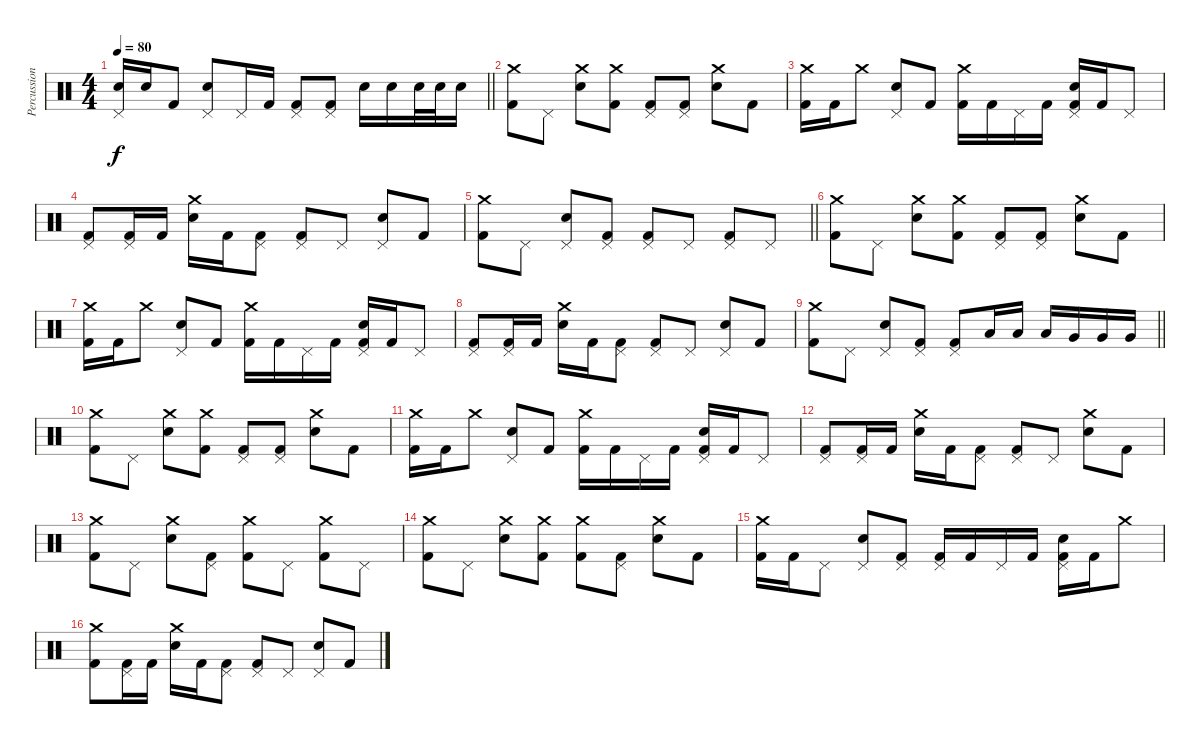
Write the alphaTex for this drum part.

\track ("Percussion" "Percussion") {instrument percussion}
\staff {score}
\articulation defaults
\ts (4 4)
\tempo 80
\clef neutral
\barLineRight lightlight
\ks c
("Pedal Hi-Hat (hit)" "Electric Snare (hit)").16{dy f} "Electric Snare (hit)".16 "Kick (hit) 2".8 ("Pedal Hi-Hat (hit)" "Electric Snare (hit)").8 "Pedal Hi-Hat (hit)".16 "Kick (hit) 2".16 ("Pedal Hi-Hat (hit)" "Kick (hit) 2").8 ("Pedal Hi-Hat (hit)" "Kick (hit) 2").8 "Electric Snare (hit)".16 "Electric Snare (hit)".16 "Electric Snare (hit)".32 "Electric Snare (hit)".32 "Electric Snare (hit)".16 |
("Crash medium (hit)" "Kick (hit) 2").8 "Pedal Hi-Hat (hit)".8 ("Crash medium (hit)" "Electric Snare (hit)").8 ("Crash medium (hit)" "Kick (hit) 2").8 ("Pedal Hi-Hat (hit)" "Kick (hit) 2").8 ("Pedal Hi-Hat (hit)" "Kick (hit) 2").8 ("Crash medium (hit)" "Electric Snare (hit)").8 "Kick (hit) 2".8 |
("Crash medium (hit)" "Kick (hit) 2").16 "Kick (hit) 2".16 "Crash medium (hit)".8 ("Pedal Hi-Hat (hit)" "Electric Snare (hit)").8 "Kick (hit) 2".8 ("Crash medium (hit)" "Kick (hit) 2").16 "Kick (hit) 2".16 "Pedal Hi-Hat (hit)".16 "Kick (hit) 2".16 ("Pedal Hi-Hat (hit)" "Electric Snare (hit)" "Kick (hit) 2").16 "Kick (hit) 2".16 "Pedal Hi-Hat (hit)".8 |
("Pedal Hi-Hat (hit)" "Kick (hit) 2").8 ("Pedal Hi-Hat (hit)" "Kick (hit) 2").16 "Kick (hit) 2".16 ("Crash medium (hit)" "Electric Snare (hit)").16 "Kick (hit) 2".16 ("Pedal Hi-Hat (hit)" "Kick (hit) 2").8 ("Pedal Hi-Hat (hit)" "Kick (hit) 2").8 "Pedal Hi-Hat (hit)".8 ("Pedal Hi-Hat (hit)" "Electric Snare (hit)").8 "Kick (hit) 2".8 |
\barLineRight lightlight
("Crash medium (hit)" "Kick (hit) 2").8 "Pedal Hi-Hat (hit)".8 ("Pedal Hi-Hat (hit)" "Electric Snare (hit)").8 ("Pedal Hi-Hat (hit)" "Kick (hit) 2").8 ("Pedal Hi-Hat (hit)" "Kick (hit) 2").8 "Pedal Hi-Hat (hit)".8 ("Pedal Hi-Hat (hit)" "Kick (hit) 2").8 "Pedal Hi-Hat (hit)".8 |
("Crash medium (hit)" "Kick (hit) 2").8 "Pedal Hi-Hat (hit)".8 ("Crash medium (hit)" "Electric Snare (hit)").8 ("Crash medium (hit)" "Kick (hit) 2").8 ("Pedal Hi-Hat (hit)" "Kick (hit) 2").8 ("Pedal Hi-Hat (hit)" "Kick (hit) 2").8 ("Crash medium (hit)" "Electric Snare (hit)").8 "Kick (hit) 2".8 |
("Crash medium (hit)" "Kick (hit) 2").16 "Kick (hit) 2".16 "Crash medium (hit)".8 ("Pedal Hi-Hat (hit)" "Electric Snare (hit)").8 "Kick (hit) 2".8 ("Crash medium (hit)" "Kick (hit) 2").16 "Kick (hit) 2".16 "Pedal Hi-Hat (hit)".16 "Kick (hit) 2".16 ("Pedal Hi-Hat (hit)" "Electric Snare (hit)" "Kick (hit) 2").16 "Kick (hit) 2".16 "Pedal Hi-Hat (hit)".8 |
("Pedal Hi-Hat (hit)" "Kick (hit) 2").8 ("Pedal Hi-Hat (hit)" "Kick (hit) 2").16 "Kick (hit) 2".16 ("Crash medium (hit)" "Electric Snare (hit)").16 "Kick (hit) 2".16 ("Pedal Hi-Hat (hit)" "Kick (hit) 2").8 ("Pedal Hi-Hat (hit)" "Kick (hit) 2").8 "Pedal Hi-Hat (hit)".8 ("Pedal Hi-Hat (hit)" "Electric Snare (hit)").8 "Kick (hit) 2".8 |
\barLineRight lightlight
("Crash medium (hit)" "Kick (hit) 2").8 "Pedal Hi-Hat (hit)".8 ("Pedal Hi-Hat (hit)" "Electric Snare (hit)").8 ("Pedal Hi-Hat (hit)" "Kick (hit) 2").8 ("Pedal Hi-Hat (hit)" "Kick (hit) 2").8 "Low Tom (hit)".16 "Low Tom (hit)".16 "Low Tom (hit)".16 "Very Low Tom (hit)".16 "Very Low Tom (hit)".16 "Very Low Tom (hit)".16 |
("Crash medium (hit)" "Kick (hit) 2").8 "Pedal Hi-Hat (hit)".8 ("Crash medium (hit)" "Electric Snare (hit)").8 ("Crash medium (hit)" "Kick (hit) 2").8 ("Pedal Hi-Hat (hit)" "Kick (hit) 2").8 ("Pedal Hi-Hat (hit)" "Kick (hit) 2").8 ("Crash medium (hit)" "Electric Snare (hit)").8 "Kick (hit) 2".8 |
("Crash medium (hit)" "Kick (hit) 2").16 "Kick (hit) 2".16 "Crash medium (hit)".8 ("Pedal Hi-Hat (hit)" "Electric Snare (hit)").8 "Kick (hit) 2".8 ("Crash medium (hit)" "Kick (hit) 2").16 "Kick (hit) 2".16 "Pedal Hi-Hat (hit)".16 "Kick (hit) 2".16 ("Pedal Hi-Hat (hit)" "Electric Snare (hit)" "Kick (hit) 2").16 "Kick (hit) 2".16 "Pedal Hi-Hat (hit)".8 |
("Pedal Hi-Hat (hit)" "Kick (hit) 2").8 ("Pedal Hi-Hat (hit)" "Kick (hit) 2").16 "Kick (hit) 2".16 ("Crash medium (hit)" "Electric Snare (hit)").16 "Kick (hit) 2".16 ("Pedal Hi-Hat (hit)" "Kick (hit) 2").8 ("Pedal Hi-Hat (hit)" "Kick (hit) 2").8 "Pedal Hi-Hat (hit)".8 ("Crash medium (hit)" "Electric Snare (hit)").8 "Kick (hit) 2".8 |
("Crash medium (hit)" "Kick (hit) 2").8 "Pedal Hi-Hat (hit)".8 ("Crash medium (hit)" "Electric Snare (hit)").8 ("Pedal Hi-Hat (hit)" "Kick (hit) 2").8 ("Crash medium (hit)" "Kick (hit) 2").8 "Pedal Hi-Hat (hit)".8 ("Crash medium (hit)" "Kick (hit) 2").8 "Pedal Hi-Hat (hit)".8 |
("Crash medium (hit)" "Kick (hit) 2").8 "Pedal Hi-Hat (hit)".8 ("Crash medium (hit)" "Electric Snare (hit)").8 ("Crash medium (hit)" "Kick (hit) 2").8 ("Crash medium (hit)" "Kick (hit) 2").8 ("Pedal Hi-Hat (hit)" "Kick (hit) 2").8 ("Crash medium (hit)" "Electric Snare (hit)").8 "Kick (hit) 2".8 |
("Crash medium (hit)" "Kick (hit) 2").16 "Kick (hit) 2".16 "Pedal Hi-Hat (hit)".8 ("Pedal Hi-Hat (hit)" "Electric Snare (hit)").8 ("Pedal Hi-Hat (hit)" "Kick (hit) 2").8 ("Pedal Hi-Hat (hit)" "Kick (hit) 2").16 "Kick (hit) 2".16 "Pedal Hi-Hat (hit)".16 "Kick (hit) 2".16 ("Pedal Hi-Hat (hit)" "Electric Snare (hit)" "Kick (hit) 2").16 "Kick (hit) 2".16 "Crash medium (hit)".8 |
("Crash medium (hit)" "Kick (hit) 2").8 ("Pedal Hi-Hat (hit)" "Kick (hit) 2").16 "Kick (hit) 2".16 ("Crash medium (hit)" "Electric Snare (hit)").16 "Kick (hit) 2".16 ("Pedal Hi-Hat (hit)" "Kick (hit) 2").8 ("Pedal Hi-Hat (hit)" "Kick (hit) 2").8 "Pedal Hi-Hat (hit)".8 ("Pedal Hi-Hat (hit)" "Electric Snare (hit)").8 "Kick (hit) 2".8
